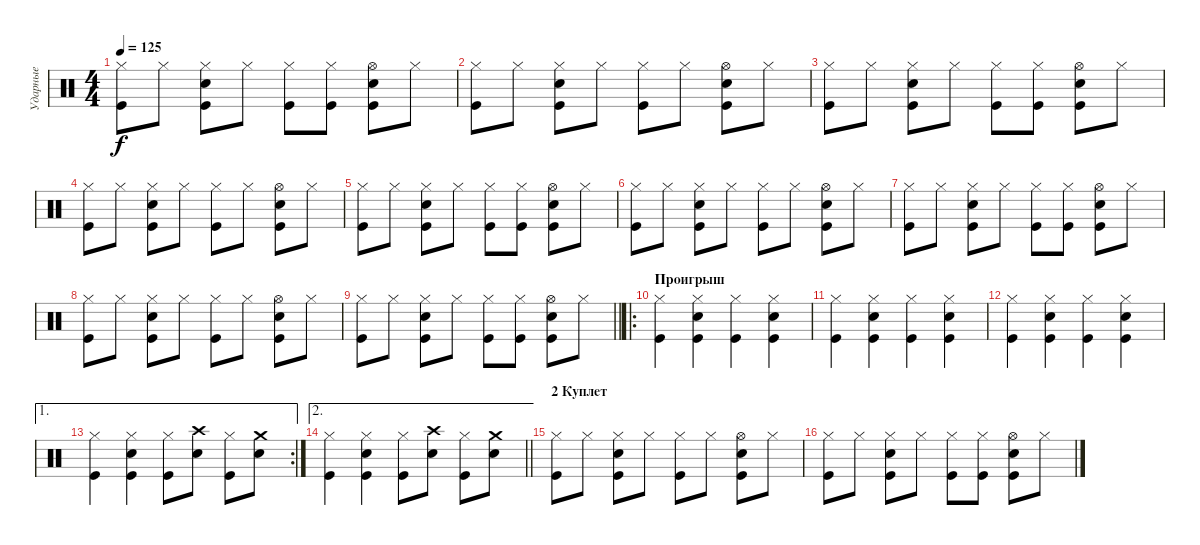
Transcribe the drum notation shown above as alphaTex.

\track ("Ударные" "Ударные") {instrument percussion}
\staff {score}
\articulation defaults
\ts (4 4)
\tempo 125
\clef neutral
\ks c
("Hi-Hat (closed)" "Kick (hit)").8{dy f} "Hi-Hat (closed)".8 ("Hi-Hat (closed)" "Kick (hit)" "Snare (hit) 2").8 "Hi-Hat (closed)".8 ("Hi-Hat (closed)" "Kick (hit)").8 ("Hi-Hat (closed)" "Kick (hit)").8 ("Hi-Hat (open)" "Kick (hit)" "Snare (hit) 2").8 "Hi-Hat (closed)".8 |
("Hi-Hat (closed)" "Kick (hit)").8 "Hi-Hat (closed)".8 ("Hi-Hat (closed)" "Kick (hit)" "Snare (hit) 2").8 "Hi-Hat (closed)".8 ("Hi-Hat (closed)" "Kick (hit)").8 "Hi-Hat (closed)".8 ("Hi-Hat (open)" "Kick (hit)" "Snare (hit) 2").8 "Hi-Hat (closed)".8 |
("Hi-Hat (closed)" "Kick (hit)").8 "Hi-Hat (closed)".8 ("Hi-Hat (closed)" "Kick (hit)" "Snare (hit) 2").8 "Hi-Hat (closed)".8 ("Hi-Hat (closed)" "Kick (hit)").8 ("Hi-Hat (closed)" "Kick (hit)").8 ("Hi-Hat (open)" "Kick (hit)" "Snare (hit) 2").8 "Hi-Hat (closed)".8 |
("Hi-Hat (closed)" "Kick (hit)").8 "Hi-Hat (closed)".8 ("Hi-Hat (closed)" "Kick (hit)" "Snare (hit) 2").8 "Hi-Hat (closed)".8 ("Hi-Hat (closed)" "Kick (hit)").8 "Hi-Hat (closed)".8 ("Hi-Hat (open)" "Kick (hit)" "Snare (hit) 2").8 "Hi-Hat (closed)".8 |
("Hi-Hat (closed)" "Kick (hit)").8 "Hi-Hat (closed)".8 ("Hi-Hat (closed)" "Kick (hit)" "Snare (hit) 2").8 "Hi-Hat (closed)".8 ("Hi-Hat (closed)" "Kick (hit)").8 ("Hi-Hat (closed)" "Kick (hit)").8 ("Hi-Hat (open)" "Kick (hit)" "Snare (hit) 2").8 "Hi-Hat (closed)".8 |
("Hi-Hat (closed)" "Kick (hit)").8 "Hi-Hat (closed)".8 ("Hi-Hat (closed)" "Kick (hit)" "Snare (hit) 2").8 "Hi-Hat (closed)".8 ("Hi-Hat (closed)" "Kick (hit)").8 "Hi-Hat (closed)".8 ("Hi-Hat (open)" "Kick (hit)" "Snare (hit) 2").8 "Hi-Hat (closed)".8 |
("Hi-Hat (closed)" "Kick (hit)").8 "Hi-Hat (closed)".8 ("Hi-Hat (closed)" "Kick (hit)" "Snare (hit) 2").8 "Hi-Hat (closed)".8 ("Hi-Hat (closed)" "Kick (hit)").8 ("Hi-Hat (closed)" "Kick (hit)").8 ("Hi-Hat (open)" "Kick (hit)" "Snare (hit) 2").8 "Hi-Hat (closed)".8 |
("Hi-Hat (closed)" "Kick (hit)").8 "Hi-Hat (closed)".8 ("Hi-Hat (closed)" "Kick (hit)" "Snare (hit) 2").8 "Hi-Hat (closed)".8 ("Hi-Hat (closed)" "Kick (hit)").8 "Hi-Hat (closed)".8 ("Hi-Hat (open)" "Kick (hit)" "Snare (hit) 2").8 "Hi-Hat (closed)".8 |
\barLineRight lightlight
("Hi-Hat (closed)" "Kick (hit)").8 "Hi-Hat (closed)".8 ("Hi-Hat (closed)" "Kick (hit)" "Snare (hit) 2").8 "Hi-Hat (closed)".8 ("Hi-Hat (closed)" "Kick (hit)").8 ("Hi-Hat (closed)" "Kick (hit)").8 ("Hi-Hat (open)" "Kick (hit)" "Snare (hit) 2").8 "Hi-Hat (closed)".8 |
\ro
\section ("" "Проигрыш")
("Kick (hit)" "Hi-Hat (closed)").4 ("Kick (hit)" "Snare (hit) 2" "Hi-Hat (closed)").4 ("Kick (hit)" "Hi-Hat (closed)").4 ("Kick (hit)" "Snare (hit) 2" "Hi-Hat (closed)").4 |
("Kick (hit)" "Hi-Hat (closed)").4 ("Kick (hit)" "Snare (hit) 2" "Hi-Hat (closed)").4 ("Kick (hit)" "Hi-Hat (closed)").4 ("Kick (hit)" "Snare (hit) 2" "Hi-Hat (closed)").4 |
("Kick (hit)" "Hi-Hat (closed)").4 ("Kick (hit)" "Snare (hit) 2" "Hi-Hat (closed)").4 ("Kick (hit)" "Hi-Hat (closed)").4 ("Kick (hit)" "Snare (hit) 2" "Hi-Hat (closed)").4 |
\ae 1
\rc 2
("Kick (hit)" "Hi-Hat (closed)").4 ("Kick (hit)" "Snare (hit) 2" "Hi-Hat (closed)").4 ("Kick (hit)" "Hi-Hat (closed)").8 ("Snare (hit) 2" "Crash high (hit)").8 ("Kick (hit)" "Hi-Hat (closed)").8 ("Snare (hit) 2" "Crash medium (hit)").8 |
\ae 2
\barLineRight lightlight
("Kick (hit)" "Hi-Hat (closed)").4 ("Kick (hit)" "Snare (hit) 2" "Hi-Hat (closed)").4 ("Kick (hit)" "Hi-Hat (closed)").8 ("Snare (hit) 2" "Crash high (hit)").8 ("Kick (hit)" "Hi-Hat (closed)").8 ("Snare (hit) 2" "Crash medium (hit)").8 |
\section ("" "2 Куплет")
("Hi-Hat (closed)" "Kick (hit)").8 "Hi-Hat (closed)".8 ("Hi-Hat (closed)" "Kick (hit)" "Snare (hit) 2").8 "Hi-Hat (closed)".8 ("Hi-Hat (closed)" "Kick (hit)").8 "Hi-Hat (closed)".8 ("Hi-Hat (open)" "Kick (hit)" "Snare (hit) 2").8 "Hi-Hat (closed)".8 |
("Hi-Hat (closed)" "Kick (hit)").8 "Hi-Hat (closed)".8 ("Hi-Hat (closed)" "Kick (hit)" "Snare (hit) 2").8 "Hi-Hat (closed)".8 ("Hi-Hat (closed)" "Kick (hit)").8 ("Hi-Hat (closed)" "Kick (hit)").8 ("Hi-Hat (open)" "Kick (hit)" "Snare (hit) 2").8 "Hi-Hat (closed)".8
